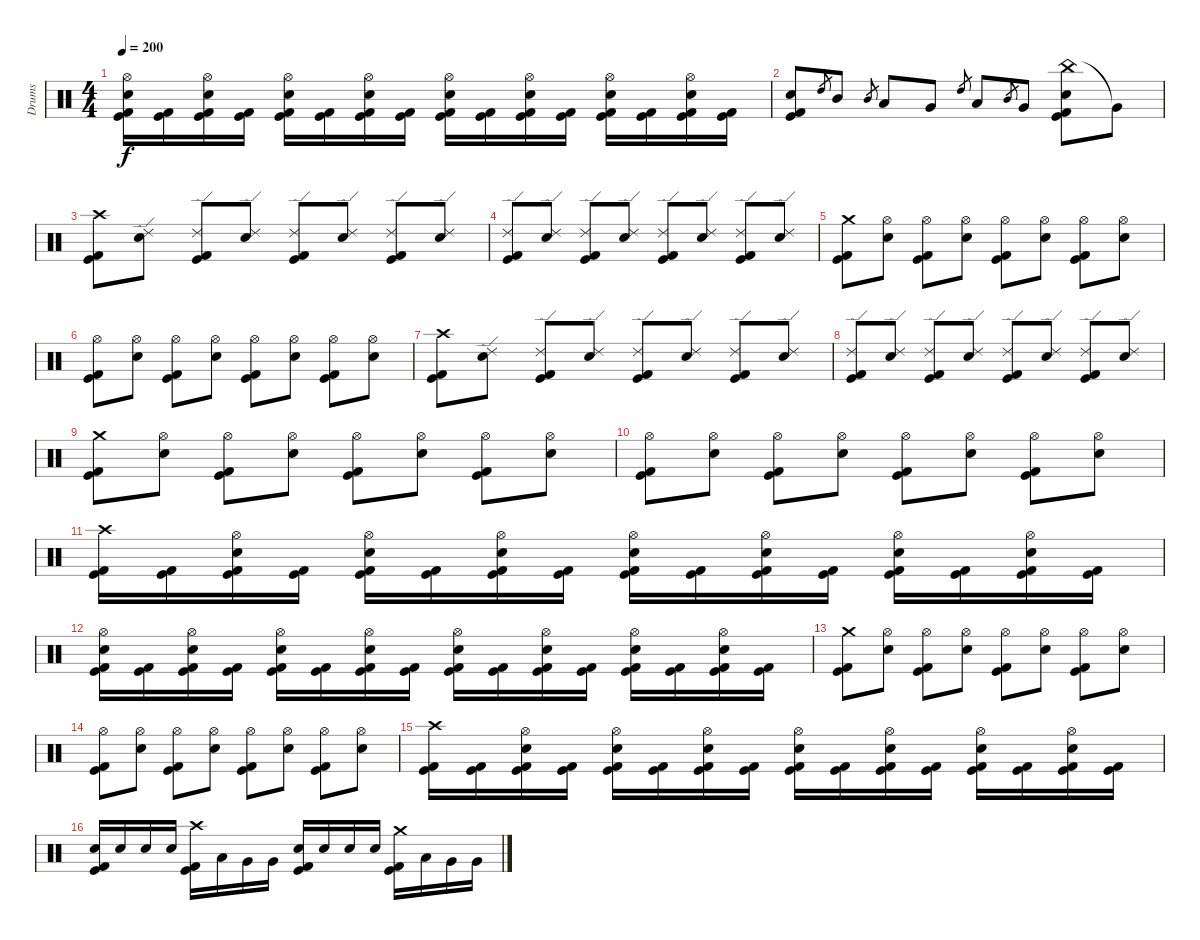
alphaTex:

\track ("Drums" "Drums") {instrument percussion}
\staff {score}
\articulation defaults
\ts (4 4)
\tempo 200
\clef neutral
\ks c
("Hi-Hat (open)" "Electric Snare (hit)" "Kick (hit)" "Kick (hit) 2").16{dy f} ("Kick (hit)" "Kick (hit) 2").16 ("Hi-Hat (open)" "Electric Snare (hit)" "Kick (hit)" "Kick (hit) 2").16 ("Kick (hit)" "Kick (hit) 2").16 ("Hi-Hat (open)" "Electric Snare (hit)" "Kick (hit)" "Kick (hit) 2").16 ("Kick (hit)" "Kick (hit) 2").16 ("Hi-Hat (open)" "Electric Snare (hit)" "Kick (hit)" "Kick (hit) 2").16 ("Kick (hit)" "Kick (hit) 2").16 ("Hi-Hat (open)" "Electric Snare (hit)" "Kick (hit)" "Kick (hit) 2").16 ("Kick (hit)" "Kick (hit) 2").16 ("Hi-Hat (open)" "Electric Snare (hit)" "Kick (hit)" "Kick (hit) 2").16 ("Kick (hit)" "Kick (hit) 2").16 ("Hi-Hat (open)" "Electric Snare (hit)" "Kick (hit)" "Kick (hit) 2").16 ("Kick (hit)" "Kick (hit) 2").16 ("Hi-Hat (open)" "Electric Snare (hit)" "Kick (hit)" "Kick (hit) 2").16 ("Kick (hit)" "Kick (hit) 2").16 |
("Electric Snare (hit)" "Kick (hit)" "Kick (hit) 2").8 "High Tom (hit)".8{gr} "Mid Tom (hit)".8 "Mid Tom (hit)".8{gr} "Low Tom (hit)".8 "Very Low Tom (hit)".8 "High Tom (hit)".8{gr} "Low Tom (hit)".8 "Mid Tom (hit)".8{gr} "Very Low Tom (hit)".8 ("China (hit)" "Electric Snare (hit)" "Kick (hit)" "Kick (hit) 2").8 "Very Low Tom (hit)"{t}.8 |
("Crash high (hit)" "Kick (hit)" "Kick (hit) 2").8 ("Ride (edge) 2" "Electric Snare (hit)").8 ("Ride (edge) 2" "Kick (hit)" "Kick (hit) 2").8 ("Ride (edge) 2" "Electric Snare (hit)").8 ("Ride (edge) 2" "Kick (hit)" "Kick (hit) 2").8 ("Ride (edge) 2" "Electric Snare (hit)").8 ("Ride (edge) 2" "Kick (hit)" "Kick (hit) 2").8 ("Ride (edge) 2" "Electric Snare (hit)").8 |
("Ride (edge) 2" "Kick (hit)" "Kick (hit) 2").8 ("Ride (edge) 2" "Electric Snare (hit)").8 ("Ride (edge) 2" "Kick (hit)" "Kick (hit) 2").8 ("Ride (edge) 2" "Electric Snare (hit)").8 ("Ride (edge) 2" "Kick (hit)" "Kick (hit) 2").8 ("Ride (edge) 2" "Electric Snare (hit)").8 ("Ride (edge) 2" "Kick (hit)" "Kick (hit) 2").8 ("Ride (edge) 2" "Electric Snare (hit)").8 |
("Crash medium (hit)" "Kick (hit)" "Kick (hit) 2").8 ("Hi-Hat (open)" "Electric Snare (hit)").8 ("Hi-Hat (open)" "Kick (hit)" "Kick (hit) 2").8 ("Hi-Hat (open)" "Electric Snare (hit)").8 ("Hi-Hat (open)" "Kick (hit)" "Kick (hit) 2").8 ("Hi-Hat (open)" "Electric Snare (hit)").8 ("Hi-Hat (open)" "Kick (hit)" "Kick (hit) 2").8 ("Hi-Hat (open)" "Electric Snare (hit)").8 |
("Hi-Hat (open)" "Kick (hit)" "Kick (hit) 2").8 ("Hi-Hat (open)" "Electric Snare (hit)").8 ("Hi-Hat (open)" "Kick (hit)" "Kick (hit) 2").8 ("Hi-Hat (open)" "Electric Snare (hit)").8 ("Hi-Hat (open)" "Kick (hit)" "Kick (hit) 2").8 ("Hi-Hat (open)" "Electric Snare (hit)").8 ("Hi-Hat (open)" "Kick (hit)" "Kick (hit) 2").8 ("Hi-Hat (open)" "Electric Snare (hit)").8 |
("Crash high (hit)" "Kick (hit)" "Kick (hit) 2").8 ("Ride (edge) 2" "Electric Snare (hit)").8 ("Ride (edge) 2" "Kick (hit)" "Kick (hit) 2").8 ("Ride (edge) 2" "Electric Snare (hit)").8 ("Ride (edge) 2" "Kick (hit)" "Kick (hit) 2").8 ("Ride (edge) 2" "Electric Snare (hit)").8 ("Ride (edge) 2" "Kick (hit)" "Kick (hit) 2").8 ("Ride (edge) 2" "Electric Snare (hit)").8 |
("Ride (edge) 2" "Kick (hit)" "Kick (hit) 2").8 ("Ride (edge) 2" "Electric Snare (hit)").8 ("Ride (edge) 2" "Kick (hit)" "Kick (hit) 2").8 ("Ride (edge) 2" "Electric Snare (hit)").8 ("Ride (edge) 2" "Kick (hit)" "Kick (hit) 2").8 ("Ride (edge) 2" "Electric Snare (hit)").8 ("Ride (edge) 2" "Kick (hit)" "Kick (hit) 2").8 ("Ride (edge) 2" "Electric Snare (hit)").8 |
("Crash medium (hit)" "Kick (hit)" "Kick (hit) 2").8 ("Hi-Hat (open)" "Electric Snare (hit)").8 ("Hi-Hat (open)" "Kick (hit)" "Kick (hit) 2").8 ("Hi-Hat (open)" "Electric Snare (hit)").8 ("Hi-Hat (open)" "Kick (hit)" "Kick (hit) 2").8 ("Hi-Hat (open)" "Electric Snare (hit)").8 ("Hi-Hat (open)" "Kick (hit)" "Kick (hit) 2").8 ("Hi-Hat (open)" "Electric Snare (hit)").8 |
("Hi-Hat (open)" "Kick (hit)" "Kick (hit) 2").8 ("Hi-Hat (open)" "Electric Snare (hit)").8 ("Hi-Hat (open)" "Kick (hit)" "Kick (hit) 2").8 ("Hi-Hat (open)" "Electric Snare (hit)").8 ("Hi-Hat (open)" "Kick (hit)" "Kick (hit) 2").8 ("Hi-Hat (open)" "Electric Snare (hit)").8 ("Hi-Hat (open)" "Kick (hit)" "Kick (hit) 2").8 ("Hi-Hat (open)" "Electric Snare (hit)").8 |
("Crash high (hit)" "Kick (hit)" "Kick (hit) 2").16 ("Kick (hit)" "Kick (hit) 2").16 ("Hi-Hat (open)" "Electric Snare (hit)" "Kick (hit)" "Kick (hit) 2").16 ("Kick (hit)" "Kick (hit) 2").16 ("Hi-Hat (open)" "Electric Snare (hit)" "Kick (hit)" "Kick (hit) 2").16 ("Kick (hit)" "Kick (hit) 2").16 ("Hi-Hat (open)" "Electric Snare (hit)" "Kick (hit)" "Kick (hit) 2").16 ("Kick (hit)" "Kick (hit) 2").16 ("Hi-Hat (open)" "Electric Snare (hit)" "Kick (hit)" "Kick (hit) 2").16 ("Kick (hit)" "Kick (hit) 2").16 ("Hi-Hat (open)" "Electric Snare (hit)" "Kick (hit)" "Kick (hit) 2").16 ("Kick (hit)" "Kick (hit) 2").16 ("Hi-Hat (open)" "Electric Snare (hit)" "Kick (hit)" "Kick (hit) 2").16 ("Kick (hit)" "Kick (hit) 2").16 ("Hi-Hat (open)" "Electric Snare (hit)" "Kick (hit)" "Kick (hit) 2").16 ("Kick (hit)" "Kick (hit) 2").16 |
("Hi-Hat (open)" "Electric Snare (hit)" "Kick (hit)" "Kick (hit) 2").16 ("Kick (hit)" "Kick (hit) 2").16 ("Hi-Hat (open)" "Electric Snare (hit)" "Kick (hit)" "Kick (hit) 2").16 ("Kick (hit)" "Kick (hit) 2").16 ("Hi-Hat (open)" "Electric Snare (hit)" "Kick (hit)" "Kick (hit) 2").16 ("Kick (hit)" "Kick (hit) 2").16 ("Hi-Hat (open)" "Electric Snare (hit)" "Kick (hit)" "Kick (hit) 2").16 ("Kick (hit)" "Kick (hit) 2").16 ("Hi-Hat (open)" "Electric Snare (hit)" "Kick (hit)" "Kick (hit) 2").16 ("Kick (hit)" "Kick (hit) 2").16 ("Hi-Hat (open)" "Electric Snare (hit)" "Kick (hit)" "Kick (hit) 2").16 ("Kick (hit)" "Kick (hit) 2").16 ("Hi-Hat (open)" "Electric Snare (hit)" "Kick (hit)" "Kick (hit) 2").16 ("Kick (hit)" "Kick (hit) 2").16 ("Hi-Hat (open)" "Electric Snare (hit)" "Kick (hit)" "Kick (hit) 2").16 ("Kick (hit)" "Kick (hit) 2").16 |
("Crash medium (hit)" "Kick (hit)" "Kick (hit) 2").8 ("Hi-Hat (open)" "Electric Snare (hit)").8 ("Hi-Hat (open)" "Kick (hit)" "Kick (hit) 2").8 ("Hi-Hat (open)" "Electric Snare (hit)").8 ("Hi-Hat (open)" "Kick (hit)" "Kick (hit) 2").8 ("Hi-Hat (open)" "Electric Snare (hit)").8 ("Hi-Hat (open)" "Kick (hit)" "Kick (hit) 2").8 ("Hi-Hat (open)" "Electric Snare (hit)").8 |
("Hi-Hat (open)" "Kick (hit)" "Kick (hit) 2").8 ("Hi-Hat (open)" "Electric Snare (hit)").8 ("Hi-Hat (open)" "Kick (hit)" "Kick (hit) 2").8 ("Hi-Hat (open)" "Electric Snare (hit)").8 ("Hi-Hat (open)" "Kick (hit)" "Kick (hit) 2").8 ("Hi-Hat (open)" "Electric Snare (hit)").8 ("Hi-Hat (open)" "Kick (hit)" "Kick (hit) 2").8 ("Hi-Hat (open)" "Electric Snare (hit)").8 |
("Crash high (hit)" "Kick (hit)" "Kick (hit) 2").16 ("Kick (hit)" "Kick (hit) 2").16 ("Hi-Hat (open)" "Electric Snare (hit)" "Kick (hit)" "Kick (hit) 2").16 ("Kick (hit)" "Kick (hit) 2").16 ("Hi-Hat (open)" "Electric Snare (hit)" "Kick (hit)" "Kick (hit) 2").16 ("Kick (hit)" "Kick (hit) 2").16 ("Hi-Hat (open)" "Electric Snare (hit)" "Kick (hit)" "Kick (hit) 2").16 ("Kick (hit)" "Kick (hit) 2").16 ("Hi-Hat (open)" "Electric Snare (hit)" "Kick (hit)" "Kick (hit) 2").16 ("Kick (hit)" "Kick (hit) 2").16 ("Hi-Hat (open)" "Electric Snare (hit)" "Kick (hit)" "Kick (hit) 2").16 ("Kick (hit)" "Kick (hit) 2").16 ("Hi-Hat (open)" "Electric Snare (hit)" "Kick (hit)" "Kick (hit) 2").16 ("Kick (hit)" "Kick (hit) 2").16 ("Hi-Hat (open)" "Electric Snare (hit)" "Kick (hit)" "Kick (hit) 2").16 ("Kick (hit)" "Kick (hit) 2").16 |
("Electric Snare (hit)" "Kick (hit)" "Kick (hit) 2").16 "Electric Snare (hit)".16 "Electric Snare (hit)".16 "Electric Snare (hit)".16 ("Crash high (hit)" "Kick (hit)" "Kick (hit) 2").16 "Low Tom (hit)".16 "Very Low Tom (hit)".16 "Very Low Tom (hit)".16 ("Electric Snare (hit)" "Kick (hit)" "Kick (hit) 2").16 "Electric Snare (hit)".16 "Electric Snare (hit)".16 "Electric Snare (hit)".16 ("Crash medium (hit)" "Kick (hit)" "Kick (hit) 2").16 "Low Tom (hit)".16 "Very Low Tom (hit)".16 "Very Low Tom (hit)".16
